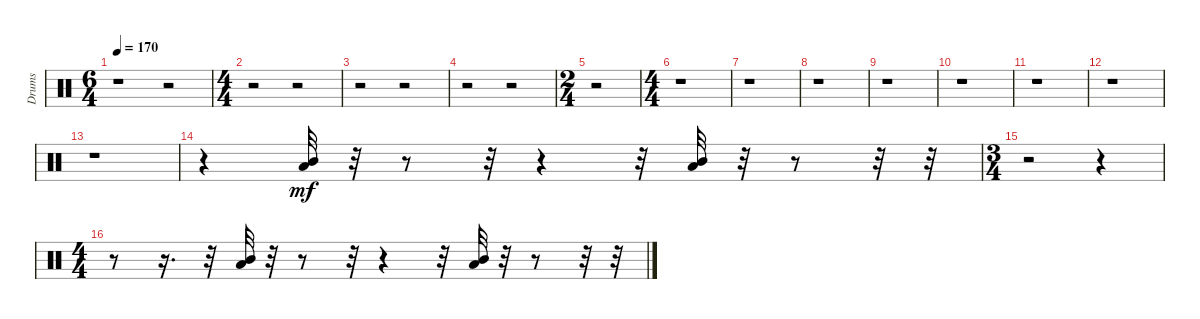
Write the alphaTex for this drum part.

\track ("Drums" "Drums") {instrument percussion}
\staff {score}
\articulation defaults
\ts (6 4)
\tempo 170
\clef neutral
\ks c
r.1{dy mf} r.2 |
\ts (4 4)
r.2 r.2 |
r.2 r.2 |
r.2 r.2 |
\ts (2 4)
r.2 |
\ts (4 4)
r.1 |
r.1 |
r.1 |
r.1 |
r.1 |
r.1 |
r.1 |
r.1 |
r.4 ("Low Tom (hit)" "Mid Tom (hit)").32 r.32 r.8 r.32 r.4 r.32 ("Low Tom (hit)" "Mid Tom (hit)").32 r.32 r.8 r.32 r.32 |
\ts (3 4)
r.2 r.4 |
\ts (4 4)
r.8 r.16{d} r.32 ("Low Tom (hit)" "Mid Tom (hit)").32 r.32 r.8 r.32 r.4 r.32 ("Low Tom (hit)" "Mid Tom (hit)").32 r.32 r.8 r.32 r.32
